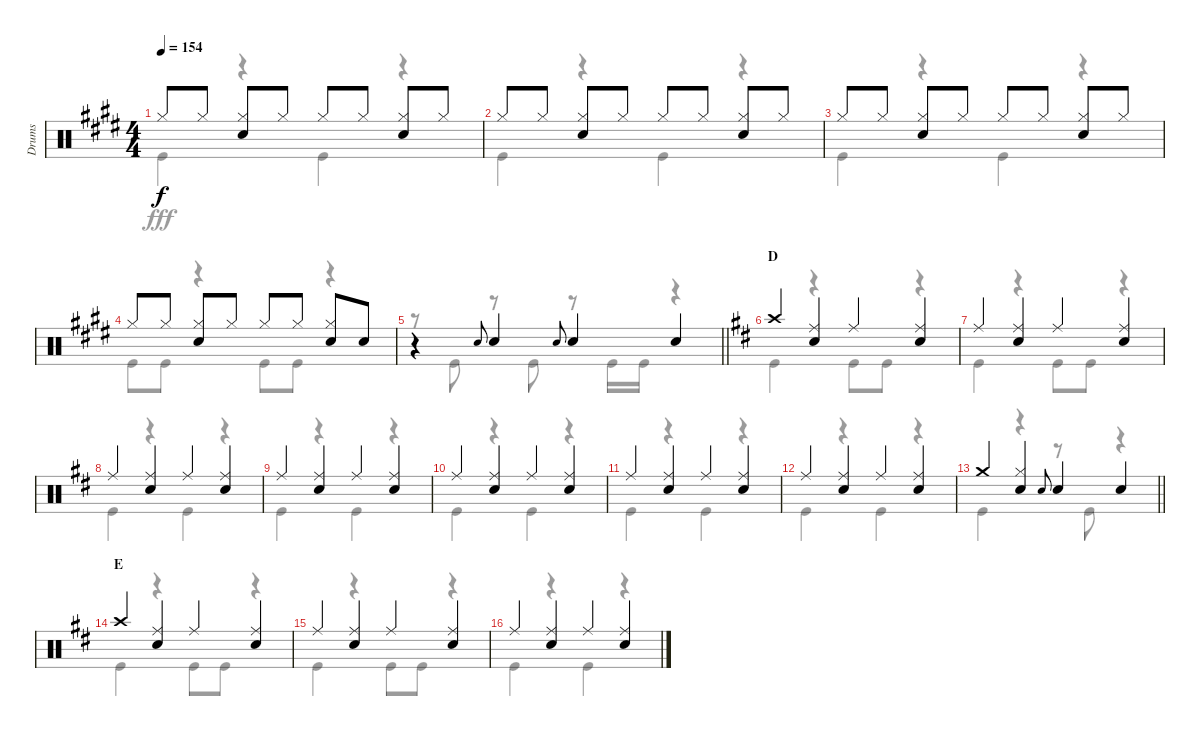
\track ("Drums" "Drums") {instrument percussion}
\staff {score}
\articulation defaults
\voice
\ts (4 4)
\tempo 154
\clef neutral
\ks e "Hi-Hat (closed)".8{dy f} "Hi-Hat (closed)".8
("Hi-Hat (closed)" "Snare (hit) 2").8 "Hi-Hat (closed)".8 "Hi-Hat (closed)".8 "Hi-Hat (closed)".8 ("Hi-Hat (closed)" "Snare (hit) 2").8 "Hi-Hat (closed)".8 |
"Hi-Hat (closed)".8 "Hi-Hat (closed)".8 ("Hi-Hat (closed)" "Snare (hit) 2").8 "Hi-Hat (closed)".8 "Hi-Hat (closed)".8 "Hi-Hat (closed)".8 ("Hi-Hat (closed)" "Snare (hit) 2").8 "Hi-Hat (closed)".8 |
"Hi-Hat (closed)".8 "Hi-Hat (closed)".8 ("Hi-Hat (closed)" "Snare (hit) 2").8 "Hi-Hat (closed)".8 "Hi-Hat (closed)".8 "Hi-Hat (closed)".8 ("Hi-Hat (closed)" "Snare (hit) 2").8 "Hi-Hat (closed)".8 |
"Hi-Hat (closed)".8 "Hi-Hat (closed)".8 ("Hi-Hat (closed)" "Snare (hit) 2").8 "Hi-Hat (closed)".8 "Hi-Hat (closed)".8 "Hi-Hat (closed)".8 ("Hi-Hat (closed)" "Snare (hit) 2").8 "Snare (hit) 2".8 |
\barLineRight lightlight
r.4 "Snare (hit) 2".8{gr onbeat} "Snare (hit) 2".4 "Snare (hit) 2".8{gr onbeat} "Snare (hit) 2".4 "Snare (hit) 2".4 |
\section ("" "D")
\ks d "Crash high (hit)".4
("Ride (middle)" "Snare (hit) 2").4 "Ride (middle)".4 ("Ride (middle)" "Snare (hit) 2").4 |
"Ride (middle)".4 ("Ride (middle)" "Snare (hit) 2").4 "Ride (middle)".4 ("Ride (middle)" "Snare (hit) 2").4 |
"Ride (middle)".4 ("Ride (middle)" "Snare (hit) 2").4 "Ride (middle)".4 ("Ride (middle)" "Snare (hit) 2").4 |
"Ride (middle)".4 ("Ride (middle)" "Snare (hit) 2").4 "Ride (middle)".4 ("Ride (middle)" "Snare (hit) 2").4 |
"Ride (middle)".4 ("Ride (middle)" "Snare (hit) 2").4 "Ride (middle)".4 ("Ride (middle)" "Snare (hit) 2").4 |
"Ride (middle)".4 ("Ride (middle)" "Snare (hit) 2").4 "Ride (middle)".4 ("Ride (middle)" "Snare (hit) 2").4 |
"Ride (middle)".4 ("Ride (middle)" "Snare (hit) 2").4 "Ride (middle)".4 ("Ride (middle)" "Snare (hit) 2").4 |
\barLineRight lightlight "Crash medium (hit)".4
("Hi-Hat (closed)" "Snare (hit) 2").4 "Snare (hit) 2".8{gr onbeat} "Snare (hit) 2".4 "Snare (hit) 2".4 |
\section ("" "E")
"Crash high (hit)".4 ("Ride (middle)" "Snare (hit) 2").4 "Ride (middle)".4 ("Ride (middle)" "Snare (hit) 2").4 |
"Ride (middle)".4 ("Ride (middle)" "Snare (hit) 2").4 "Ride (middle)".4 ("Ride (middle)" "Snare (hit) 2").4 |
"Ride (middle)".4 ("Ride (middle)" "Snare (hit) 2").4 "Ride (middle)".4 ("Ride (middle)" "Snare (hit) 2").4
\voice
\clef neutral
\ottava regular
\simile none
\ks e "Kick (hit)".4{dy fff}
r.4 "Kick (hit)".4 r.4 |
"Kick (hit)".4 r.4 "Kick (hit)".4 r.4 |
"Kick (hit)".4 r.4 "Kick (hit)".4 r.4 |
"Kick (hit)".8 "Kick (hit)".8 r.4 "Kick (hit)".8 "Kick (hit)".8 r.4 |
\barLineRight lightlight
r.8 "Kick (hit)".8 r.8 "Kick (hit)".8 r.8 "Kick (hit)".16 "Kick (hit)".16 r.4 |
\ks d "Kick (hit)".4
r.4 "Kick (hit)".8 "Kick (hit)".8 r.4 |
"Kick (hit)".4 r.4 "Kick (hit)".8 "Kick (hit)".8 r.4 |
"Kick (hit)".4 r.4 "Kick (hit)".4 r.4 |
"Kick (hit)".4 r.4 "Kick (hit)".4 r.4 |
"Kick (hit)".4 r.4 "Kick (hit)".4 r.4 |
"Kick (hit)".4 r.4 "Kick (hit)".4 r.4 |
"Kick (hit)".4 r.4 "Kick (hit)".4 r.4 |
\barLineRight lightlight "Kick (hit)".4
r.4 r.8 "Kick (hit)".8 r.4 |
"Kick (hit)".4 r.4 "Kick (hit)".8 "Kick (hit)".8 r.4 |
"Kick (hit)".4 r.4 "Kick (hit)".8 "Kick (hit)".8 r.4 |
"Kick (hit)".4 r.4 "Kick (hit)".4 r.4
